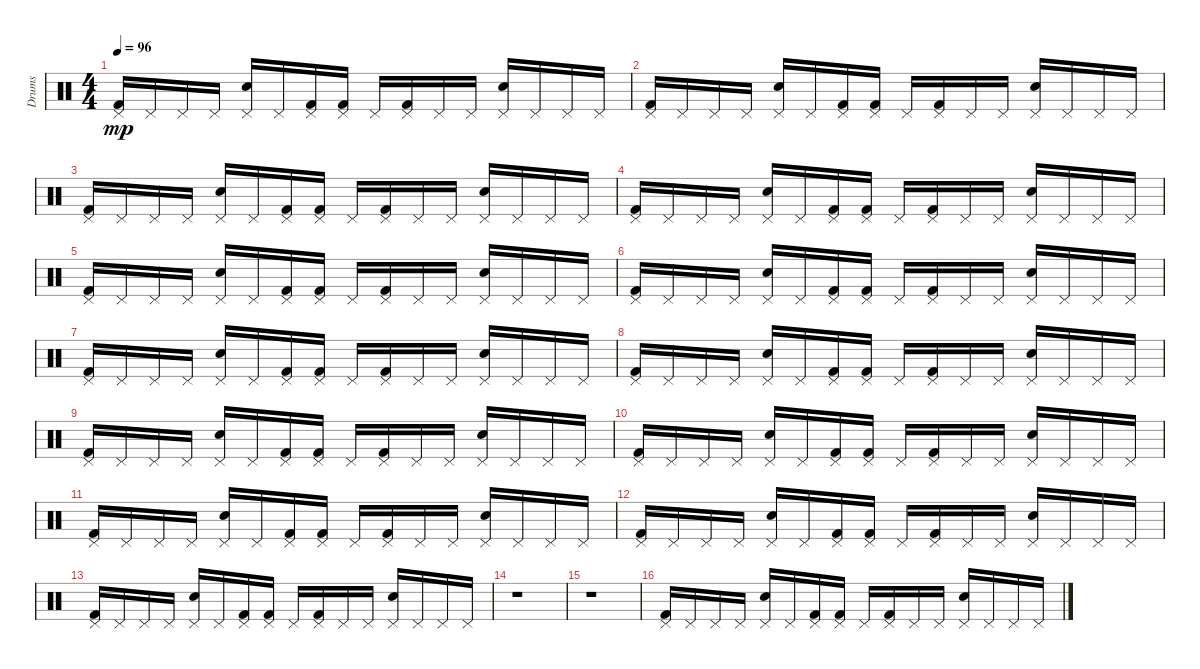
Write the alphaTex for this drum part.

\track ("Drums" "Drums") {instrument percussion}
\staff {score}
\articulation defaults
\ts (4 4)
\tempo 96
\clef neutral
\ks c
("Pedal Hi-Hat (hit)" "Kick (hit) 2").16{dy mp} "Pedal Hi-Hat (hit)".16 "Pedal Hi-Hat (hit)".16 "Pedal Hi-Hat (hit)".16 ("Electric Snare (hit)" "Pedal Hi-Hat (hit)").16 "Pedal Hi-Hat (hit)".16 ("Pedal Hi-Hat (hit)" "Kick (hit) 2").16 ("Pedal Hi-Hat (hit)" "Kick (hit) 2").16 "Pedal Hi-Hat (hit)".16 ("Pedal Hi-Hat (hit)" "Kick (hit) 2").16 "Pedal Hi-Hat (hit)".16 "Pedal Hi-Hat (hit)".16 ("Electric Snare (hit)" "Pedal Hi-Hat (hit)").16 "Pedal Hi-Hat (hit)".16 "Pedal Hi-Hat (hit)".16 "Pedal Hi-Hat (hit)".16 |
("Pedal Hi-Hat (hit)" "Kick (hit) 2").16 "Pedal Hi-Hat (hit)".16 "Pedal Hi-Hat (hit)".16 "Pedal Hi-Hat (hit)".16 ("Electric Snare (hit)" "Pedal Hi-Hat (hit)").16 "Pedal Hi-Hat (hit)".16 ("Pedal Hi-Hat (hit)" "Kick (hit) 2").16 ("Pedal Hi-Hat (hit)" "Kick (hit) 2").16 "Pedal Hi-Hat (hit)".16 ("Pedal Hi-Hat (hit)" "Kick (hit) 2").16 "Pedal Hi-Hat (hit)".16 "Pedal Hi-Hat (hit)".16 ("Electric Snare (hit)" "Pedal Hi-Hat (hit)").16 "Pedal Hi-Hat (hit)".16 "Pedal Hi-Hat (hit)".16 "Pedal Hi-Hat (hit)".16 |
("Pedal Hi-Hat (hit)" "Kick (hit) 2").16 "Pedal Hi-Hat (hit)".16 "Pedal Hi-Hat (hit)".16 "Pedal Hi-Hat (hit)".16 ("Electric Snare (hit)" "Pedal Hi-Hat (hit)").16 "Pedal Hi-Hat (hit)".16 ("Pedal Hi-Hat (hit)" "Kick (hit) 2").16 ("Pedal Hi-Hat (hit)" "Kick (hit) 2").16 "Pedal Hi-Hat (hit)".16 ("Pedal Hi-Hat (hit)" "Kick (hit) 2").16 "Pedal Hi-Hat (hit)".16 "Pedal Hi-Hat (hit)".16 ("Electric Snare (hit)" "Pedal Hi-Hat (hit)").16 "Pedal Hi-Hat (hit)".16 "Pedal Hi-Hat (hit)".16 "Pedal Hi-Hat (hit)".16 |
("Pedal Hi-Hat (hit)" "Kick (hit) 2").16 "Pedal Hi-Hat (hit)".16 "Pedal Hi-Hat (hit)".16 "Pedal Hi-Hat (hit)".16 ("Electric Snare (hit)" "Pedal Hi-Hat (hit)").16 "Pedal Hi-Hat (hit)".16 ("Pedal Hi-Hat (hit)" "Kick (hit) 2").16 ("Pedal Hi-Hat (hit)" "Kick (hit) 2").16 "Pedal Hi-Hat (hit)".16 ("Pedal Hi-Hat (hit)" "Kick (hit) 2").16 "Pedal Hi-Hat (hit)".16 "Pedal Hi-Hat (hit)".16 ("Electric Snare (hit)" "Pedal Hi-Hat (hit)").16 "Pedal Hi-Hat (hit)".16 "Pedal Hi-Hat (hit)".16 "Pedal Hi-Hat (hit)".16 |
("Pedal Hi-Hat (hit)" "Kick (hit) 2").16 "Pedal Hi-Hat (hit)".16 "Pedal Hi-Hat (hit)".16 "Pedal Hi-Hat (hit)".16 ("Electric Snare (hit)" "Pedal Hi-Hat (hit)").16 "Pedal Hi-Hat (hit)".16 ("Pedal Hi-Hat (hit)" "Kick (hit) 2").16 ("Pedal Hi-Hat (hit)" "Kick (hit) 2").16 "Pedal Hi-Hat (hit)".16 ("Pedal Hi-Hat (hit)" "Kick (hit) 2").16 "Pedal Hi-Hat (hit)".16 "Pedal Hi-Hat (hit)".16 ("Electric Snare (hit)" "Pedal Hi-Hat (hit)").16 "Pedal Hi-Hat (hit)".16 "Pedal Hi-Hat (hit)".16 "Pedal Hi-Hat (hit)".16 |
("Pedal Hi-Hat (hit)" "Kick (hit) 2").16 "Pedal Hi-Hat (hit)".16 "Pedal Hi-Hat (hit)".16 "Pedal Hi-Hat (hit)".16 ("Electric Snare (hit)" "Pedal Hi-Hat (hit)").16 "Pedal Hi-Hat (hit)".16 ("Pedal Hi-Hat (hit)" "Kick (hit) 2").16 ("Pedal Hi-Hat (hit)" "Kick (hit) 2").16 "Pedal Hi-Hat (hit)".16 ("Pedal Hi-Hat (hit)" "Kick (hit) 2").16 "Pedal Hi-Hat (hit)".16 "Pedal Hi-Hat (hit)".16 ("Electric Snare (hit)" "Pedal Hi-Hat (hit)").16 "Pedal Hi-Hat (hit)".16 "Pedal Hi-Hat (hit)".16 "Pedal Hi-Hat (hit)".16 |
("Pedal Hi-Hat (hit)" "Kick (hit) 2").16 "Pedal Hi-Hat (hit)".16 "Pedal Hi-Hat (hit)".16 "Pedal Hi-Hat (hit)".16 ("Electric Snare (hit)" "Pedal Hi-Hat (hit)").16 "Pedal Hi-Hat (hit)".16 ("Pedal Hi-Hat (hit)" "Kick (hit) 2").16 ("Pedal Hi-Hat (hit)" "Kick (hit) 2").16 "Pedal Hi-Hat (hit)".16 ("Pedal Hi-Hat (hit)" "Kick (hit) 2").16 "Pedal Hi-Hat (hit)".16 "Pedal Hi-Hat (hit)".16 ("Electric Snare (hit)" "Pedal Hi-Hat (hit)").16 "Pedal Hi-Hat (hit)".16 "Pedal Hi-Hat (hit)".16 "Pedal Hi-Hat (hit)".16 |
("Pedal Hi-Hat (hit)" "Kick (hit) 2").16 "Pedal Hi-Hat (hit)".16 "Pedal Hi-Hat (hit)".16 "Pedal Hi-Hat (hit)".16 ("Electric Snare (hit)" "Pedal Hi-Hat (hit)").16 "Pedal Hi-Hat (hit)".16 ("Pedal Hi-Hat (hit)" "Kick (hit) 2").16 ("Pedal Hi-Hat (hit)" "Kick (hit) 2").16 "Pedal Hi-Hat (hit)".16 ("Pedal Hi-Hat (hit)" "Kick (hit) 2").16 "Pedal Hi-Hat (hit)".16 "Pedal Hi-Hat (hit)".16 ("Electric Snare (hit)" "Pedal Hi-Hat (hit)").16 "Pedal Hi-Hat (hit)".16 "Pedal Hi-Hat (hit)".16 "Pedal Hi-Hat (hit)".16 |
("Pedal Hi-Hat (hit)" "Kick (hit) 2").16 "Pedal Hi-Hat (hit)".16 "Pedal Hi-Hat (hit)".16 "Pedal Hi-Hat (hit)".16 ("Electric Snare (hit)" "Pedal Hi-Hat (hit)").16 "Pedal Hi-Hat (hit)".16 ("Pedal Hi-Hat (hit)" "Kick (hit) 2").16 ("Pedal Hi-Hat (hit)" "Kick (hit) 2").16 "Pedal Hi-Hat (hit)".16 ("Pedal Hi-Hat (hit)" "Kick (hit) 2").16 "Pedal Hi-Hat (hit)".16 "Pedal Hi-Hat (hit)".16 ("Electric Snare (hit)" "Pedal Hi-Hat (hit)").16 "Pedal Hi-Hat (hit)".16 "Pedal Hi-Hat (hit)".16 "Pedal Hi-Hat (hit)".16 |
("Pedal Hi-Hat (hit)" "Kick (hit) 2").16 "Pedal Hi-Hat (hit)".16 "Pedal Hi-Hat (hit)".16 "Pedal Hi-Hat (hit)".16 ("Electric Snare (hit)" "Pedal Hi-Hat (hit)").16 "Pedal Hi-Hat (hit)".16 ("Pedal Hi-Hat (hit)" "Kick (hit) 2").16 ("Pedal Hi-Hat (hit)" "Kick (hit) 2").16 "Pedal Hi-Hat (hit)".16 ("Pedal Hi-Hat (hit)" "Kick (hit) 2").16 "Pedal Hi-Hat (hit)".16 "Pedal Hi-Hat (hit)".16 ("Electric Snare (hit)" "Pedal Hi-Hat (hit)").16 "Pedal Hi-Hat (hit)".16 "Pedal Hi-Hat (hit)".16 "Pedal Hi-Hat (hit)".16 |
("Pedal Hi-Hat (hit)" "Kick (hit) 2").16 "Pedal Hi-Hat (hit)".16 "Pedal Hi-Hat (hit)".16 "Pedal Hi-Hat (hit)".16 ("Electric Snare (hit)" "Pedal Hi-Hat (hit)").16 "Pedal Hi-Hat (hit)".16 ("Pedal Hi-Hat (hit)" "Kick (hit) 2").16 ("Pedal Hi-Hat (hit)" "Kick (hit) 2").16 "Pedal Hi-Hat (hit)".16 ("Pedal Hi-Hat (hit)" "Kick (hit) 2").16 "Pedal Hi-Hat (hit)".16 "Pedal Hi-Hat (hit)".16 ("Electric Snare (hit)" "Pedal Hi-Hat (hit)").16 "Pedal Hi-Hat (hit)".16 "Pedal Hi-Hat (hit)".16 "Pedal Hi-Hat (hit)".16 |
("Pedal Hi-Hat (hit)" "Kick (hit) 2").16 "Pedal Hi-Hat (hit)".16 "Pedal Hi-Hat (hit)".16 "Pedal Hi-Hat (hit)".16 ("Electric Snare (hit)" "Pedal Hi-Hat (hit)").16 "Pedal Hi-Hat (hit)".16 ("Pedal Hi-Hat (hit)" "Kick (hit) 2").16 ("Pedal Hi-Hat (hit)" "Kick (hit) 2").16 "Pedal Hi-Hat (hit)".16 ("Pedal Hi-Hat (hit)" "Kick (hit) 2").16 "Pedal Hi-Hat (hit)".16 "Pedal Hi-Hat (hit)".16 ("Electric Snare (hit)" "Pedal Hi-Hat (hit)").16 "Pedal Hi-Hat (hit)".16 "Pedal Hi-Hat (hit)".16 "Pedal Hi-Hat (hit)".16 |
("Pedal Hi-Hat (hit)" "Kick (hit) 2").16 "Pedal Hi-Hat (hit)".16 "Pedal Hi-Hat (hit)".16 "Pedal Hi-Hat (hit)".16 ("Electric Snare (hit)" "Pedal Hi-Hat (hit)").16 "Pedal Hi-Hat (hit)".16 ("Pedal Hi-Hat (hit)" "Kick (hit) 2").16 ("Pedal Hi-Hat (hit)" "Kick (hit) 2").16 "Pedal Hi-Hat (hit)".16 ("Pedal Hi-Hat (hit)" "Kick (hit) 2").16 "Pedal Hi-Hat (hit)".16 "Pedal Hi-Hat (hit)".16 ("Electric Snare (hit)" "Pedal Hi-Hat (hit)").16 "Pedal Hi-Hat (hit)".16 "Pedal Hi-Hat (hit)".16 "Pedal Hi-Hat (hit)".16 |
r.1 |
r.1 |
("Pedal Hi-Hat (hit)" "Kick (hit) 2").16 "Pedal Hi-Hat (hit)".16 "Pedal Hi-Hat (hit)".16 "Pedal Hi-Hat (hit)".16 ("Electric Snare (hit)" "Pedal Hi-Hat (hit)").16 "Pedal Hi-Hat (hit)".16 ("Pedal Hi-Hat (hit)" "Kick (hit) 2").16 ("Pedal Hi-Hat (hit)" "Kick (hit) 2").16 "Pedal Hi-Hat (hit)".16 ("Pedal Hi-Hat (hit)" "Kick (hit) 2").16 "Pedal Hi-Hat (hit)".16 "Pedal Hi-Hat (hit)".16 ("Electric Snare (hit)" "Pedal Hi-Hat (hit)").16 "Pedal Hi-Hat (hit)".16 "Pedal Hi-Hat (hit)".16 "Pedal Hi-Hat (hit)".16
